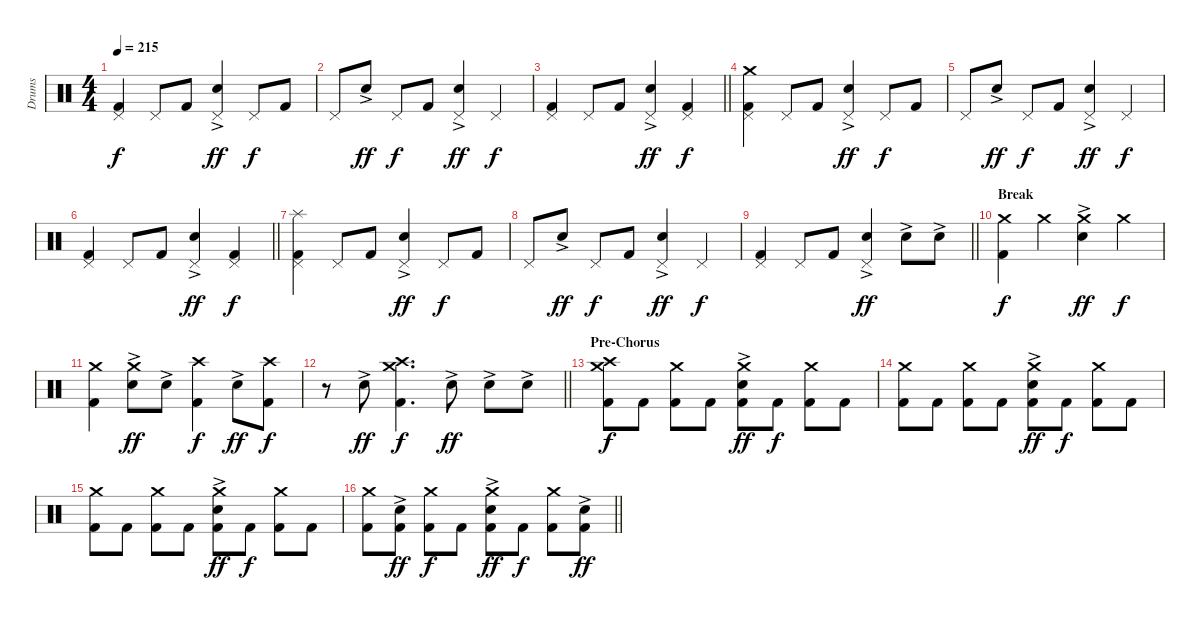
\track ("Drums" "Drums") {instrument percussion}
\staff {score}
\articulation defaults
\ts (4 4)
\section ("" "")
\tempo 215
\clef neutral
\ks c
("Kick (hit) 2" "Pedal Hi-Hat (hit)").4{dy f} "Pedal Hi-Hat (hit)".8 "Kick (hit) 2".8 ("Snare (hit) 2"{ac} "Pedal Hi-Hat (hit)").4{dy ff} "Pedal Hi-Hat (hit)".8{dy f} "Kick (hit) 2".8 |
"Pedal Hi-Hat (hit)".8 "Snare (hit) 2"{ac}.8{dy ff} "Pedal Hi-Hat (hit)".8{dy f} "Kick (hit) 2".8 ("Snare (hit) 2"{ac} "Pedal Hi-Hat (hit)").4{dy ff} "Pedal Hi-Hat (hit)".4{dy f} |
\barLineRight lightlight
("Kick (hit) 2" "Pedal Hi-Hat (hit)").4 "Pedal Hi-Hat (hit)".8 "Kick (hit) 2".8 ("Snare (hit) 2"{ac} "Pedal Hi-Hat (hit)").4{dy ff} ("Kick (hit) 2" "Pedal Hi-Hat (hit)").4{dy f} |
\section ("" "")
("Kick (hit) 2" "Pedal Hi-Hat (hit)" "Crash medium (hit)").4 "Pedal Hi-Hat (hit)".8 "Kick (hit) 2".8 ("Snare (hit) 2"{ac} "Pedal Hi-Hat (hit)").4{dy ff} "Pedal Hi-Hat (hit)".8{dy f} "Kick (hit) 2".8 |
"Pedal Hi-Hat (hit)".8 "Snare (hit) 2"{ac}.8{dy ff} "Pedal Hi-Hat (hit)".8{dy f} "Kick (hit) 2".8 ("Snare (hit) 2"{ac} "Pedal Hi-Hat (hit)").4{dy ff} "Pedal Hi-Hat (hit)".4{dy f} |
\barLineRight lightlight
("Kick (hit) 2" "Pedal Hi-Hat (hit)").4 "Pedal Hi-Hat (hit)".8 "Kick (hit) 2".8 ("Snare (hit) 2"{ac} "Pedal Hi-Hat (hit)").4{dy ff} ("Kick (hit) 2" "Pedal Hi-Hat (hit)").4{dy f} |
\section ("" "")
("Kick (hit) 2" "Pedal Hi-Hat (hit)" "Splash (hit)").4 "Pedal Hi-Hat (hit)".8 "Kick (hit) 2".8 ("Snare (hit) 2"{ac} "Pedal Hi-Hat (hit)").4{dy ff} "Pedal Hi-Hat (hit)".8{dy f} "Kick (hit) 2".8 |
"Pedal Hi-Hat (hit)".8 "Snare (hit) 2"{ac}.8{dy ff} "Pedal Hi-Hat (hit)".8{dy f} "Kick (hit) 2".8 ("Snare (hit) 2"{ac} "Pedal Hi-Hat (hit)").4{dy ff} "Pedal Hi-Hat (hit)".4{dy f} |
\barLineRight lightlight
("Kick (hit) 2" "Pedal Hi-Hat (hit)").4 "Pedal Hi-Hat (hit)".8 "Kick (hit) 2".8 ("Snare (hit) 2"{ac} "Pedal Hi-Hat (hit)").4{dy ff} "Snare (hit) 2"{ac}.8 "Snare (hit) 2"{ac}.8 |
\section ("" "Break")
("Kick (hit) 2" "Crash medium (hit)").4{dy f} "Crash medium (hit)".4 ("Snare (hit) 2"{ac} "Crash medium (hit)").4{dy ff} "Crash medium (hit)".4{dy f} |
("Kick (hit) 2" "Crash medium (hit)").4 ("Snare (hit) 2"{ac} "Crash medium (hit)").8{dy ff} "Snare (hit) 2"{ac}.8 ("Kick (hit) 2" "Crash high (hit)").4{dy f} "Snare (hit) 2"{ac}.8{dy ff} ("Kick (hit) 2" "Crash high (hit)").8{dy f} |
\barLineRight lightlight
r.8 "Snare (hit) 2"{ac}.8{dy ff} ("Kick (hit) 2" "Crash medium (hit)" "Crash high (hit)").4{d dy f} "Snare (hit) 2"{ac}.8{dy ff} "Snare (hit) 2"{ac}.8 "Snare (hit) 2"{ac}.8 |
\section ("" "Pre-Chorus")
("Kick (hit) 2" "Crash medium (hit)" "Crash high (hit)").8{dy f} "Kick (hit) 2".8 ("Kick (hit) 2" "Crash medium (hit)").8 "Kick (hit) 2".8 ("Kick (hit) 2" "Snare (hit) 2"{ac} "Crash medium (hit)").8{dy ff} "Kick (hit) 2".8{dy f} ("Kick (hit) 2" "Crash medium (hit)").8 "Kick (hit) 2".8 |
("Kick (hit) 2" "Crash medium (hit)").8 "Kick (hit) 2".8 ("Kick (hit) 2" "Crash medium (hit)").8 "Kick (hit) 2".8 ("Kick (hit) 2" "Snare (hit) 2"{ac} "Crash medium (hit)").8{dy ff} "Kick (hit) 2".8{dy f} ("Kick (hit) 2" "Crash medium (hit)").8 "Kick (hit) 2".8 |
("Kick (hit) 2" "Crash medium (hit)").8 "Kick (hit) 2".8 ("Kick (hit) 2" "Crash medium (hit)").8 "Kick (hit) 2".8 ("Kick (hit) 2" "Snare (hit) 2"{ac} "Crash medium (hit)").8{dy ff} "Kick (hit) 2".8{dy f} ("Kick (hit) 2" "Crash medium (hit)").8 "Kick (hit) 2".8 |
\barLineRight lightlight
("Kick (hit) 2" "Crash medium (hit)").8 ("Kick (hit) 2" "Snare (hit) 2"{ac}).8{dy ff} ("Kick (hit) 2" "Crash medium (hit)").8{dy f} "Kick (hit) 2".8 ("Kick (hit) 2" "Snare (hit) 2"{ac} "Crash medium (hit)").8{dy ff} "Kick (hit) 2".8{dy f} ("Kick (hit) 2" "Crash medium (hit)").8 ("Kick (hit) 2" "Snare (hit) 2"{ac}).8{dy ff}
